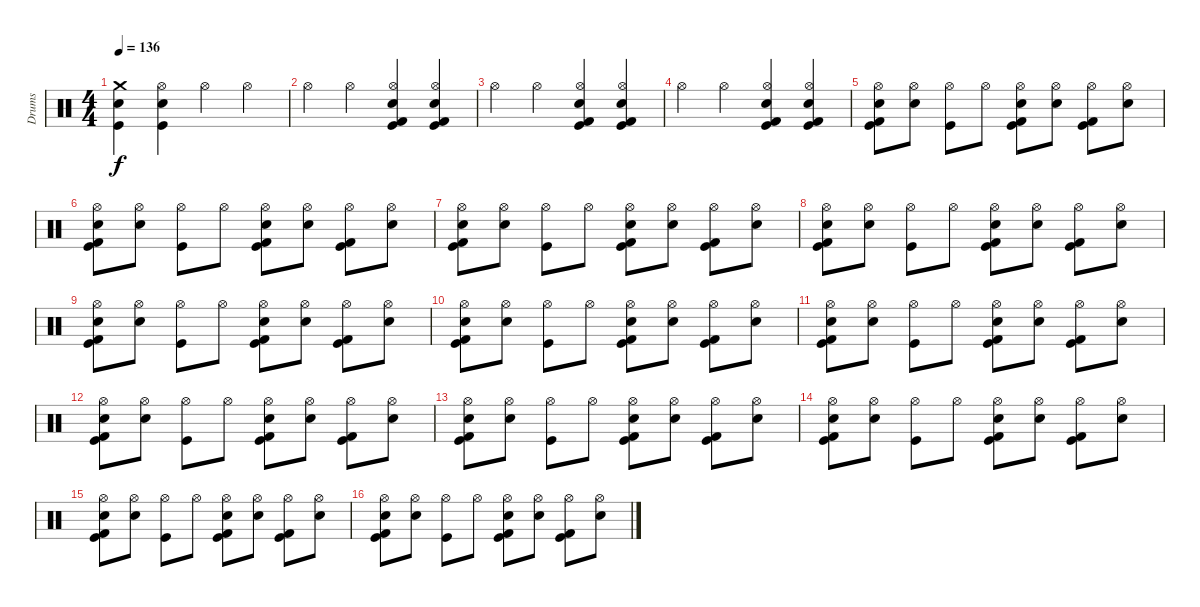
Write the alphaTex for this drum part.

\track ("Drums" "Drums") {instrument percussion}
\staff {score}
\articulation defaults
\ts (4 4)
\tempo 136
\clef neutral
\ks c
("Crash medium (hit)" "Electric Snare (hit)" "Kick (hit)").4{dy f} ("Hi-Hat (open)" "Electric Snare (hit)" "Kick (hit)").4 "Hi-Hat (open)".4 "Hi-Hat (open)".4 |
"Hi-Hat (open)".4 "Hi-Hat (open)".4 ("Hi-Hat (open)" "Electric Snare (hit)" "Kick (hit) 2" "Kick (hit)").4 ("Hi-Hat (open)" "Electric Snare (hit)" "Kick (hit) 2" "Kick (hit)").4 |
"Hi-Hat (open)".4 "Hi-Hat (open)".4 ("Hi-Hat (open)" "Electric Snare (hit)" "Kick (hit) 2" "Kick (hit)").4 ("Hi-Hat (open)" "Electric Snare (hit)" "Kick (hit) 2" "Kick (hit)").4 |
"Hi-Hat (open)".4 "Hi-Hat (open)".4 ("Hi-Hat (open)" "Electric Snare (hit)" "Kick (hit) 2" "Kick (hit)").4 ("Hi-Hat (open)" "Electric Snare (hit)" "Kick (hit) 2" "Kick (hit)").4 |
("Hi-Hat (open)" "Electric Snare (hit)" "Kick (hit) 2" "Kick (hit)").8 ("Hi-Hat (open)" "Electric Snare (hit)").8 ("Hi-Hat (open)" "Kick (hit)").8 "Hi-Hat (open)".8 ("Hi-Hat (open)" "Electric Snare (hit)" "Kick (hit) 2" "Kick (hit)").8 ("Hi-Hat (open)" "Electric Snare (hit)").8 ("Hi-Hat (open)" "Kick (hit) 2" "Kick (hit)").8 ("Hi-Hat (open)" "Electric Snare (hit)").8 |
("Hi-Hat (open)" "Electric Snare (hit)" "Kick (hit) 2" "Kick (hit)").8 ("Hi-Hat (open)" "Electric Snare (hit)").8 ("Hi-Hat (open)" "Kick (hit)").8 "Hi-Hat (open)".8 ("Hi-Hat (open)" "Electric Snare (hit)" "Kick (hit) 2" "Kick (hit)").8 ("Hi-Hat (open)" "Electric Snare (hit)").8 ("Hi-Hat (open)" "Kick (hit) 2" "Kick (hit)").8 ("Hi-Hat (open)" "Electric Snare (hit)").8 |
("Hi-Hat (open)" "Electric Snare (hit)" "Kick (hit) 2" "Kick (hit)").8 ("Hi-Hat (open)" "Electric Snare (hit)").8 ("Hi-Hat (open)" "Kick (hit)").8 "Hi-Hat (open)".8 ("Hi-Hat (open)" "Electric Snare (hit)" "Kick (hit) 2" "Kick (hit)").8 ("Hi-Hat (open)" "Electric Snare (hit)").8 ("Hi-Hat (open)" "Kick (hit) 2" "Kick (hit)").8 ("Hi-Hat (open)" "Electric Snare (hit)").8 |
("Hi-Hat (open)" "Electric Snare (hit)" "Kick (hit) 2" "Kick (hit)").8 ("Hi-Hat (open)" "Electric Snare (hit)").8 ("Hi-Hat (open)" "Kick (hit)").8 "Hi-Hat (open)".8 ("Hi-Hat (open)" "Electric Snare (hit)" "Kick (hit) 2" "Kick (hit)").8 ("Hi-Hat (open)" "Electric Snare (hit)").8 ("Hi-Hat (open)" "Kick (hit) 2" "Kick (hit)").8 ("Hi-Hat (open)" "Electric Snare (hit)").8 |
("Hi-Hat (open)" "Electric Snare (hit)" "Kick (hit) 2" "Kick (hit)").8 ("Hi-Hat (open)" "Electric Snare (hit)").8 ("Hi-Hat (open)" "Kick (hit)").8 "Hi-Hat (open)".8 ("Hi-Hat (open)" "Electric Snare (hit)" "Kick (hit) 2" "Kick (hit)").8 ("Hi-Hat (open)" "Electric Snare (hit)").8 ("Hi-Hat (open)" "Kick (hit) 2" "Kick (hit)").8 ("Hi-Hat (open)" "Electric Snare (hit)").8 |
("Hi-Hat (open)" "Electric Snare (hit)" "Kick (hit) 2" "Kick (hit)").8 ("Hi-Hat (open)" "Electric Snare (hit)").8 ("Hi-Hat (open)" "Kick (hit)").8 "Hi-Hat (open)".8 ("Hi-Hat (open)" "Electric Snare (hit)" "Kick (hit) 2" "Kick (hit)").8 ("Hi-Hat (open)" "Electric Snare (hit)").8 ("Hi-Hat (open)" "Kick (hit) 2" "Kick (hit)").8 ("Hi-Hat (open)" "Electric Snare (hit)").8 |
("Hi-Hat (open)" "Electric Snare (hit)" "Kick (hit) 2" "Kick (hit)").8 ("Hi-Hat (open)" "Electric Snare (hit)").8 ("Hi-Hat (open)" "Kick (hit)").8 "Hi-Hat (open)".8 ("Hi-Hat (open)" "Electric Snare (hit)" "Kick (hit) 2" "Kick (hit)").8 ("Hi-Hat (open)" "Electric Snare (hit)").8 ("Hi-Hat (open)" "Kick (hit) 2" "Kick (hit)").8 ("Hi-Hat (open)" "Electric Snare (hit)").8 |
("Hi-Hat (open)" "Electric Snare (hit)" "Kick (hit) 2" "Kick (hit)").8 ("Hi-Hat (open)" "Electric Snare (hit)").8 ("Hi-Hat (open)" "Kick (hit)").8 "Hi-Hat (open)".8 ("Hi-Hat (open)" "Electric Snare (hit)" "Kick (hit) 2" "Kick (hit)").8 ("Hi-Hat (open)" "Electric Snare (hit)").8 ("Hi-Hat (open)" "Kick (hit) 2" "Kick (hit)").8 ("Hi-Hat (open)" "Electric Snare (hit)").8 |
("Hi-Hat (open)" "Electric Snare (hit)" "Kick (hit) 2" "Kick (hit)").8 ("Hi-Hat (open)" "Electric Snare (hit)").8 ("Hi-Hat (open)" "Kick (hit)").8 "Hi-Hat (open)".8 ("Hi-Hat (open)" "Electric Snare (hit)" "Kick (hit) 2" "Kick (hit)").8 ("Hi-Hat (open)" "Electric Snare (hit)").8 ("Hi-Hat (open)" "Kick (hit) 2" "Kick (hit)").8 ("Hi-Hat (open)" "Electric Snare (hit)").8 |
("Hi-Hat (open)" "Electric Snare (hit)" "Kick (hit) 2" "Kick (hit)").8 ("Hi-Hat (open)" "Electric Snare (hit)").8 ("Hi-Hat (open)" "Kick (hit)").8 "Hi-Hat (open)".8 ("Hi-Hat (open)" "Electric Snare (hit)" "Kick (hit) 2" "Kick (hit)").8 ("Hi-Hat (open)" "Electric Snare (hit)").8 ("Hi-Hat (open)" "Kick (hit) 2" "Kick (hit)").8 ("Hi-Hat (open)" "Electric Snare (hit)").8 |
("Hi-Hat (open)" "Electric Snare (hit)" "Kick (hit) 2" "Kick (hit)").8 ("Hi-Hat (open)" "Electric Snare (hit)").8 ("Hi-Hat (open)" "Kick (hit)").8 "Hi-Hat (open)".8 ("Hi-Hat (open)" "Electric Snare (hit)" "Kick (hit) 2" "Kick (hit)").8 ("Hi-Hat (open)" "Electric Snare (hit)").8 ("Hi-Hat (open)" "Kick (hit) 2" "Kick (hit)").8 ("Hi-Hat (open)" "Electric Snare (hit)").8 |
("Hi-Hat (open)" "Electric Snare (hit)" "Kick (hit) 2" "Kick (hit)").8 ("Hi-Hat (open)" "Electric Snare (hit)").8 ("Hi-Hat (open)" "Kick (hit)").8 "Hi-Hat (open)".8 ("Hi-Hat (open)" "Electric Snare (hit)" "Kick (hit) 2" "Kick (hit)").8 ("Hi-Hat (open)" "Electric Snare (hit)").8 ("Hi-Hat (open)" "Kick (hit) 2" "Kick (hit)").8 ("Hi-Hat (open)" "Electric Snare (hit)").8
